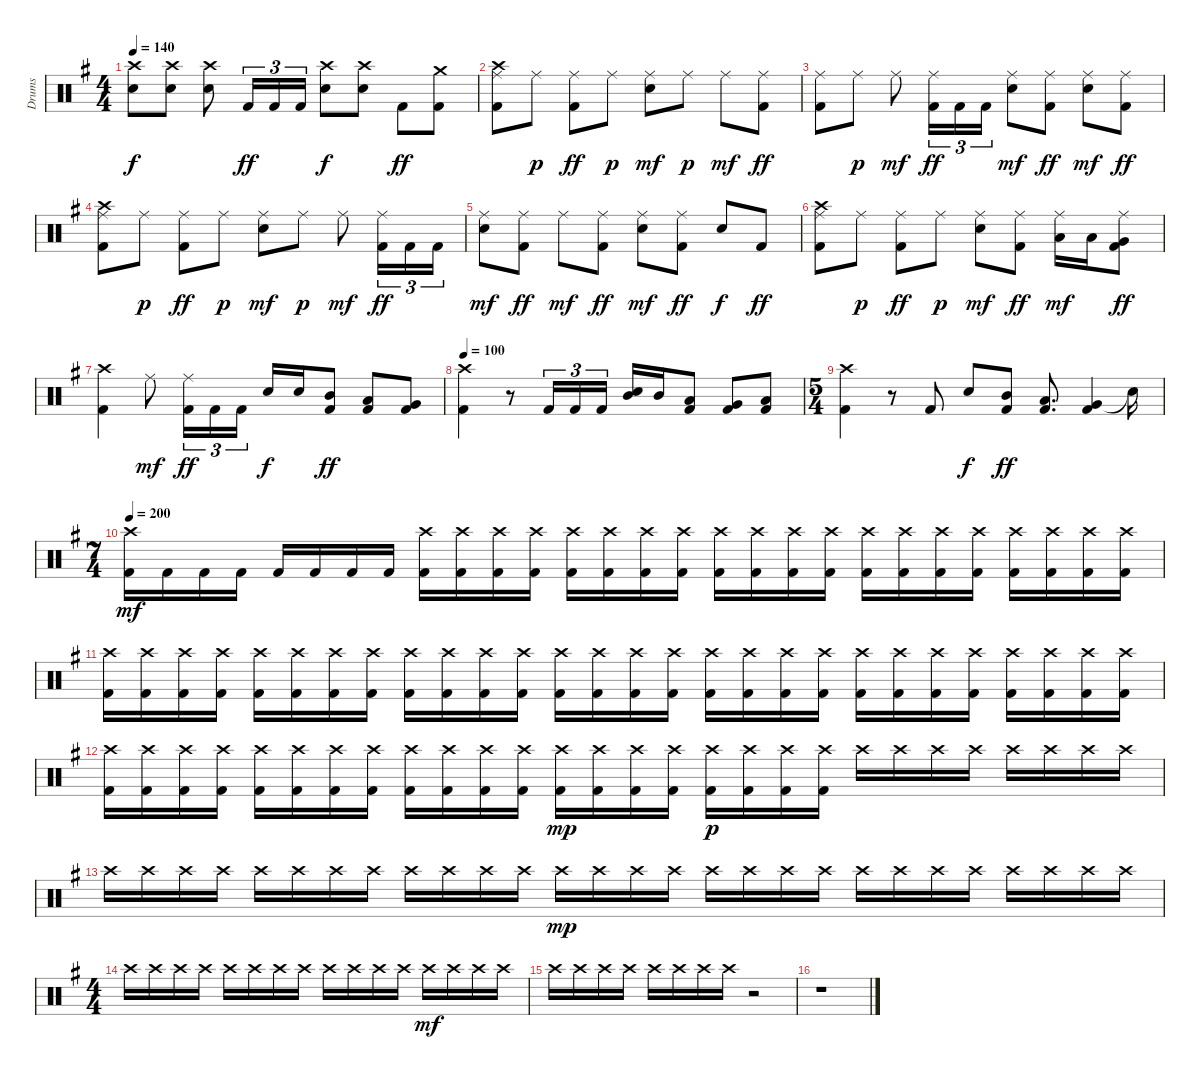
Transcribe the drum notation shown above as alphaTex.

\track ("Drums" "Drums") {instrument percussion}
\staff {score}
\articulation defaults
\ts (4 4)
\tempo 140
\clef neutral
\ks g
("Crash high (hit)" "Snare (hit) 2").8{dy f} ("Crash high (hit)" "Snare (hit) 2").8 ("Crash high (hit)" "Snare (hit) 2").8 "Kick (hit) 2".16{tu (3 2) dy ff} "Kick (hit) 2".16{tu (3 2)} "Kick (hit) 2".16{tu (3 2)} ("Crash high (hit)" "Snare (hit) 2").8{dy f} ("Crash high (hit)" "Snare (hit) 2").8 "Kick (hit) 2".8{dy ff} ("Crash medium (hit)" "Kick (hit) 2").8 |
("Crash high (hit)" "Ride (middle)" "Kick (hit) 2").8 "Ride (middle)".8{dy p} ("Ride (middle)" "Kick (hit) 2").8{dy ff} "Ride (middle)".8{dy p} ("Ride (middle)" "Snare (hit) 2").8{dy mf} "Ride (middle)".8{dy p} "Ride (middle)".8{dy mf} ("Ride (middle)" "Kick (hit) 2").8{dy ff} |
("Ride (middle)" "Kick (hit) 2").8 "Ride (middle)".8{dy p} "Ride (middle)".8{dy mf} ("Ride (middle)" "Kick (hit) 2").16{tu (3 2) dy ff} "Kick (hit) 2".16{tu (3 2)} "Kick (hit) 2".16{tu (3 2)} ("Ride (middle)" "Snare (hit) 2").8{dy mf} ("Ride (middle)" "Kick (hit) 2").8{dy ff} ("Ride (middle)" "Snare (hit) 2").8{dy mf} ("Ride (middle)" "Kick (hit) 2").8{dy ff} |
("Crash high (hit)" "Ride (middle)" "Kick (hit) 2").8 "Ride (middle)".8{dy p} ("Ride (middle)" "Kick (hit) 2").8{dy ff} "Ride (middle)".8{dy p} ("Ride (middle)" "Snare (hit) 2").8{dy mf} "Ride (middle)".8{dy p} "Ride (middle)".8{dy mf} ("Ride (middle)" "Kick (hit) 2").16{tu (3 2) dy ff} "Kick (hit) 2".16{tu (3 2)} "Kick (hit) 2".16{tu (3 2)} |
("Ride (middle)" "Snare (hit) 2").8{dy mf} ("Ride (middle)" "Kick (hit) 2").8{dy ff} "Ride (middle)".8{dy mf} ("Ride (middle)" "Kick (hit) 2").8{dy ff} ("Ride (middle)" "Snare (hit) 2").8{dy mf} ("Ride (middle)" "Kick (hit) 2").8{dy ff} "Snare (hit) 2".8{dy f} "Kick (hit) 2".8{dy ff} |
("Crash high (hit)" "Ride (middle)" "Kick (hit) 2").8 "Ride (middle)".8{dy p} ("Ride (middle)" "Kick (hit) 2").8{dy ff} "Ride (middle)".8{dy p} ("Ride (middle)" "Snare (hit) 2").8{dy mf} ("Ride (middle)" "Kick (hit) 2").8{dy ff} ("Ride (middle)" "Low Tom (hit)").16{dy mf} "Low Tom (hit)".16 ("Ride (middle)" "Very Low Tom (hit)" "Kick (hit) 2").8{dy ff} |
("Crash high (hit)" "Kick (hit) 2").4 "Ride (middle)".8{dy mf} ("Ride (middle)" "Kick (hit) 2").16{tu (3 2) dy ff} "Kick (hit) 2".16{tu (3 2)} "Kick (hit) 2".16{tu (3 2)} "Snare (hit) 2".16{dy f} "Snare (hit) 2".16 ("Mid Tom (hit)" "Kick (hit) 2").8{dy ff} ("Low Tom (hit)" "Kick (hit) 2").8 ("Very Low Tom (hit)" "Kick (hit) 2").8 |
\tempo 100
("Crash high (hit)" "Kick (hit) 2").4 r.8 "Kick (hit) 2".16{tu (3 2)} "Kick (hit) 2".16{tu (3 2)} "Kick (hit) 2".16{tu (3 2)} ("Mid Tom (hit)" "Snare (hit) 2").16 "Mid Tom (hit)".16 ("Low Tom (hit)" "Kick (hit) 2").8 ("Very Low Tom (hit)" "Kick (hit) 2").8 ("Low Floor Tom (hit)" "Kick (hit) 2").8 |
\ts (5 4)
("Crash high (hit)" "Kick (hit) 2").4 r.8 "Kick (hit) 2".8 "Snare (hit) 2".8{dy f} ("Mid Tom (hit)" "Kick (hit) 2").8{dy ff} ("Low Tom (hit)" "Kick (hit) 2").8{d} ("Very Low Tom (hit)" "Kick (hit) 2").4 "Snare (hit)"{t}.16 |
\ts (7 4)
\tempo 200
("Crash high (hit)" "Kick (hit) 2").16{dy mf} "Kick (hit) 2".16 "Kick (hit) 2".16 "Kick (hit) 2".16 "Kick (hit) 2".16 "Kick (hit) 2".16 "Kick (hit) 2".16 "Kick (hit) 2".16 ("Crash high (hit)" "Kick (hit) 2").16 ("Crash high (hit)" "Kick (hit) 2").16 ("Crash high (hit)" "Kick (hit) 2").16 ("Crash high (hit)" "Kick (hit) 2").16 ("Crash high (hit)" "Kick (hit) 2").16 ("Crash high (hit)" "Kick (hit) 2").16 ("Crash high (hit)" "Kick (hit) 2").16 ("Crash high (hit)" "Kick (hit) 2").16 ("Crash high (hit)" "Kick (hit) 2").16 ("Crash high (hit)" "Kick (hit) 2").16 ("Crash high (hit)" "Kick (hit) 2").16 ("Crash high (hit)" "Kick (hit) 2").16 ("Crash high (hit)" "Kick (hit) 2").16 ("Crash high (hit)" "Kick (hit) 2").16 ("Crash high (hit)" "Kick (hit) 2").16 ("Crash high (hit)" "Kick (hit) 2").16 ("Crash high (hit)" "Kick (hit) 2").16 ("Crash high (hit)" "Kick (hit) 2").16 ("Crash high (hit)" "Kick (hit) 2").16 ("Crash high (hit)" "Kick (hit) 2").16 |
("Crash high (hit)" "Kick (hit) 2").16 ("Crash high (hit)" "Kick (hit) 2").16 ("Crash high (hit)" "Kick (hit) 2").16 ("Crash high (hit)" "Kick (hit) 2").16 ("Crash high (hit)" "Kick (hit) 2").16 ("Crash high (hit)" "Kick (hit) 2").16 ("Crash high (hit)" "Kick (hit) 2").16 ("Crash high (hit)" "Kick (hit) 2").16 ("Crash high (hit)" "Kick (hit) 2").16 ("Crash high (hit)" "Kick (hit) 2").16 ("Crash high (hit)" "Kick (hit) 2").16 ("Crash high (hit)" "Kick (hit) 2").16 ("Crash high (hit)" "Kick (hit) 2").16 ("Crash high (hit)" "Kick (hit) 2").16 ("Crash high (hit)" "Kick (hit) 2").16 ("Crash high (hit)" "Kick (hit) 2").16 ("Crash high (hit)" "Kick (hit) 2").16 ("Crash high (hit)" "Kick (hit) 2").16 ("Crash high (hit)" "Kick (hit) 2").16 ("Crash high (hit)" "Kick (hit) 2").16 ("Crash high (hit)" "Kick (hit) 2").16 ("Crash high (hit)" "Kick (hit) 2").16 ("Crash high (hit)" "Kick (hit) 2").16 ("Crash high (hit)" "Kick (hit) 2").16 ("Crash high (hit)" "Kick (hit) 2").16 ("Crash high (hit)" "Kick (hit) 2").16 ("Crash high (hit)" "Kick (hit) 2").16 ("Crash high (hit)" "Kick (hit) 2").16 |
("Crash high (hit)" "Kick (hit) 2").16 ("Crash high (hit)" "Kick (hit) 2").16 ("Crash high (hit)" "Kick (hit) 2").16 ("Crash high (hit)" "Kick (hit) 2").16 ("Crash high (hit)" "Kick (hit) 2").16 ("Crash high (hit)" "Kick (hit) 2").16 ("Crash high (hit)" "Kick (hit) 2").16 ("Crash high (hit)" "Kick (hit) 2").16 ("Crash high (hit)" "Kick (hit) 2").16 ("Crash high (hit)" "Kick (hit) 2").16 ("Crash high (hit)" "Kick (hit) 2").16 ("Crash high (hit)" "Kick (hit) 2").16 ("Crash high (hit)" "Kick (hit) 2").16{dy mp} ("Crash high (hit)" "Kick (hit) 2").16 ("Crash high (hit)" "Kick (hit) 2").16 ("Crash high (hit)" "Kick (hit) 2").16 ("Crash high (hit)" "Kick (hit) 2").16{dy p} ("Crash high (hit)" "Kick (hit) 2").16 ("Crash high (hit)" "Kick (hit) 2").16 ("Crash high (hit)" "Kick (hit) 2").16 "Crash high (hit)".16 "Crash high (hit)".16 "Crash high (hit)".16 "Crash high (hit)".16 "Crash high (hit)".16 "Crash high (hit)".16 "Crash high (hit)".16 "Crash high (hit)".16 |
"Crash high (hit)".16 "Crash high (hit)".16 "Crash high (hit)".16 "Crash high (hit)".16 "Crash high (hit)".16 "Crash high (hit)".16 "Crash high (hit)".16 "Crash high (hit)".16 "Crash high (hit)".16 "Crash high (hit)".16 "Crash high (hit)".16 "Crash high (hit)".16 "Crash high (hit)".16{dy mp} "Crash high (hit)".16 "Crash high (hit)".16 "Crash high (hit)".16 "Crash high (hit)".16 "Crash high (hit)".16 "Crash high (hit)".16 "Crash high (hit)".16 "Crash high (hit)".16 "Crash high (hit)".16 "Crash high (hit)".16 "Crash high (hit)".16 "Crash high (hit)".16 "Crash high (hit)".16 "Crash high (hit)".16 "Crash high (hit)".16 |
\ts (4 4)
"Crash high (hit)".16 "Crash high (hit)".16 "Crash high (hit)".16 "Crash high (hit)".16 "Crash high (hit)".16 "Crash high (hit)".16 "Crash high (hit)".16 "Crash high (hit)".16 "Crash high (hit)".16 "Crash high (hit)".16 "Crash high (hit)".16 "Crash high (hit)".16 "Crash high (hit)".16{dy mf} "Crash high (hit)".16 "Crash high (hit)".16 "Crash high (hit)".16 |
"Crash high (hit)".16 "Crash high (hit)".16 "Crash high (hit)".16 "Crash high (hit)".16 "Crash high (hit)".16 "Crash high (hit)".16 "Crash high (hit)".16 "Crash high (hit)".16 r.2 |
r.1
